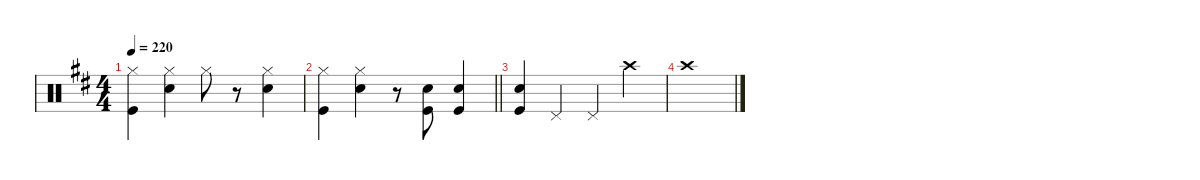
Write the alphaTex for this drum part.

\defaultSystemsLayout 4
\hideDynamics
\bracketExtendMode nobrackets
\singleTrackTrackNamePolicy hidden
\multiTrackTrackNamePolicy hidden
\otherSystemsTrackNameOrientation horizontal
\track ("Charlie Watts" "drm.") {defaultSystemsLayout 8 instrument percussion}
\staff {score}
\articulation defaults
\ts (4 4)
\tempo 220
\clef neutral
\ks bminor
("Hi-Hat (closed)"{acc forcenatural} "Kick (hit)"{acc forcenatural}).4{dy ff beam Down} ("Hi-Hat (closed)"{acc forcenatural} "Snare (hit) 2"{acc forcenatural}).4{beam Down} "Hi-Hat (closed)"{acc forcenatural}.8{beam Down} r.8{beam Down} ("Hi-Hat (closed)"{acc forcenatural} "Snare (hit) 2"{acc forcenatural}).4{beam Down} |
\barLineRight lightlight
("Hi-Hat (closed)"{acc forcenatural} "Kick (hit)"{acc forcenatural}).4{beam Down} ("Hi-Hat (closed)"{acc forcenatural} "Snare (hit) 2"{acc forcenatural}).4{beam Down} r.8{beam Down} ("Snare (hit) 2"{acc forcenatural} "Kick (hit)"{acc forcenatural}).8{beam Up} ("Snare (hit) 2"{acc forcenatural} "Kick (hit)"{acc forcenatural}).4{beam Up} |
("Snare (hit) 2"{acc forcenatural} "Kick (hit)"{acc forcenatural}).4{beam Up} "Pedal Hi-Hat (hit)"{acc forcenatural}.4{beam Up} "Pedal Hi-Hat (hit)"{acc forcenatural}.4{beam Up} "Crash high (hit)"{acc forcenatural}.4{beam Down} |
"Crash high (hit)"{acc forcenatural}.1{beam Down}
